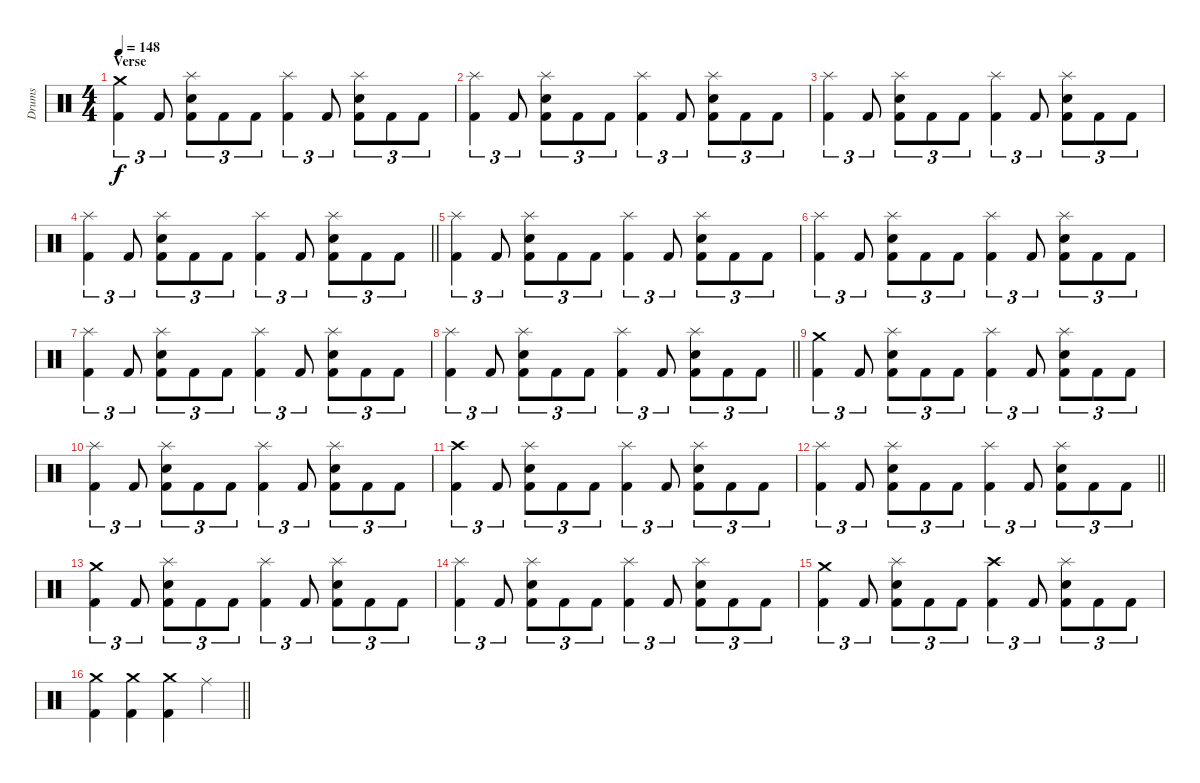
\track ("Drums" "Drums") {instrument percussion}
\staff {score}
\articulation defaults
\ts (4 4)
\section ("" "Verse")
\tempo 148
\clef neutral
\ks c
("Kick (hit) 2" "Crash medium (hit)").4{tu (3 2) dy f} "Kick (hit) 2".8{tu (3 2)} ("Kick (hit) 2" "Snare (hit) 2" "Splash (hit)").8{tu (3 2)} "Kick (hit) 2".8{tu (3 2)} "Kick (hit) 2".8{tu (3 2)} ("Kick (hit) 2" "Splash (hit)").4{tu (3 2)} "Kick (hit) 2".8{tu (3 2)} ("Kick (hit) 2" "Snare (hit) 2" "Splash (hit)").8{tu (3 2)} "Kick (hit) 2".8{tu (3 2)} "Kick (hit) 2".8{tu (3 2)} |
("Kick (hit) 2" "Splash (hit)").4{tu (3 2)} "Kick (hit) 2".8{tu (3 2)} ("Kick (hit) 2" "Snare (hit) 2" "Splash (hit)").8{tu (3 2)} "Kick (hit) 2".8{tu (3 2)} "Kick (hit) 2".8{tu (3 2)} ("Kick (hit) 2" "Splash (hit)").4{tu (3 2)} "Kick (hit) 2".8{tu (3 2)} ("Kick (hit) 2" "Snare (hit) 2" "Splash (hit)").8{tu (3 2)} "Kick (hit) 2".8{tu (3 2)} "Kick (hit) 2".8{tu (3 2)} |
("Kick (hit) 2" "Splash (hit)").4{tu (3 2)} "Kick (hit) 2".8{tu (3 2)} ("Kick (hit) 2" "Snare (hit) 2" "Splash (hit)").8{tu (3 2)} "Kick (hit) 2".8{tu (3 2)} "Kick (hit) 2".8{tu (3 2)} ("Kick (hit) 2" "Splash (hit)").4{tu (3 2)} "Kick (hit) 2".8{tu (3 2)} ("Kick (hit) 2" "Snare (hit) 2" "Splash (hit)").8{tu (3 2)} "Kick (hit) 2".8{tu (3 2)} "Kick (hit) 2".8{tu (3 2)} |
\barLineRight lightlight
("Kick (hit) 2" "Splash (hit)").4{tu (3 2)} "Kick (hit) 2".8{tu (3 2)} ("Kick (hit) 2" "Snare (hit) 2" "Splash (hit)").8{tu (3 2)} "Kick (hit) 2".8{tu (3 2)} "Kick (hit) 2".8{tu (3 2)} ("Kick (hit) 2" "Splash (hit)").4{tu (3 2)} "Kick (hit) 2".8{tu (3 2)} ("Kick (hit) 2" "Snare (hit) 2" "Splash (hit)").8{tu (3 2)} "Kick (hit) 2".8{tu (3 2)} "Kick (hit) 2".8{tu (3 2)} |
\section ("" "")
("Kick (hit) 2" "Splash (hit)").4{tu (3 2)} "Kick (hit) 2".8{tu (3 2)} ("Kick (hit) 2" "Snare (hit) 2" "Splash (hit)").8{tu (3 2)} "Kick (hit) 2".8{tu (3 2)} "Kick (hit) 2".8{tu (3 2)} ("Kick (hit) 2" "Splash (hit)").4{tu (3 2)} "Kick (hit) 2".8{tu (3 2)} ("Kick (hit) 2" "Snare (hit) 2" "Splash (hit)").8{tu (3 2)} "Kick (hit) 2".8{tu (3 2)} "Kick (hit) 2".8{tu (3 2)} |
("Kick (hit) 2" "Splash (hit)").4{tu (3 2)} "Kick (hit) 2".8{tu (3 2)} ("Kick (hit) 2" "Snare (hit) 2" "Splash (hit)").8{tu (3 2)} "Kick (hit) 2".8{tu (3 2)} "Kick (hit) 2".8{tu (3 2)} ("Kick (hit) 2" "Splash (hit)").4{tu (3 2)} "Kick (hit) 2".8{tu (3 2)} ("Kick (hit) 2" "Snare (hit) 2" "Splash (hit)").8{tu (3 2)} "Kick (hit) 2".8{tu (3 2)} "Kick (hit) 2".8{tu (3 2)} |
("Kick (hit) 2" "Splash (hit)").4{tu (3 2)} "Kick (hit) 2".8{tu (3 2)} ("Kick (hit) 2" "Snare (hit) 2" "Splash (hit)").8{tu (3 2)} "Kick (hit) 2".8{tu (3 2)} "Kick (hit) 2".8{tu (3 2)} ("Kick (hit) 2" "Splash (hit)").4{tu (3 2)} "Kick (hit) 2".8{tu (3 2)} ("Kick (hit) 2" "Snare (hit) 2" "Splash (hit)").8{tu (3 2)} "Kick (hit) 2".8{tu (3 2)} "Kick (hit) 2".8{tu (3 2)} |
\barLineRight lightlight
("Kick (hit) 2" "Splash (hit)").4{tu (3 2)} "Kick (hit) 2".8{tu (3 2)} ("Kick (hit) 2" "Snare (hit) 2" "Splash (hit)").8{tu (3 2)} "Kick (hit) 2".8{tu (3 2)} "Kick (hit) 2".8{tu (3 2)} ("Kick (hit) 2" "Splash (hit)").4{tu (3 2)} "Kick (hit) 2".8{tu (3 2)} ("Kick (hit) 2" "Snare (hit) 2" "Splash (hit)").8{tu (3 2)} "Kick (hit) 2".8{tu (3 2)} "Kick (hit) 2".8{tu (3 2)} |
\section ("" "")
("Kick (hit) 2" "Crash medium (hit)").4{tu (3 2)} "Kick (hit) 2".8{tu (3 2)} ("Kick (hit) 2" "Snare (hit) 2" "Splash (hit)").8{tu (3 2)} "Kick (hit) 2".8{tu (3 2)} "Kick (hit) 2".8{tu (3 2)} ("Kick (hit) 2" "Splash (hit)").4{tu (3 2)} "Kick (hit) 2".8{tu (3 2)} ("Kick (hit) 2" "Snare (hit) 2" "Splash (hit)").8{tu (3 2)} "Kick (hit) 2".8{tu (3 2)} "Kick (hit) 2".8{tu (3 2)} |
("Kick (hit) 2" "Splash (hit)").4{tu (3 2)} "Kick (hit) 2".8{tu (3 2)} ("Kick (hit) 2" "Snare (hit) 2" "Splash (hit)").8{tu (3 2)} "Kick (hit) 2".8{tu (3 2)} "Kick (hit) 2".8{tu (3 2)} ("Kick (hit) 2" "Splash (hit)").4{tu (3 2)} "Kick (hit) 2".8{tu (3 2)} ("Kick (hit) 2" "Snare (hit) 2" "Splash (hit)").8{tu (3 2)} "Kick (hit) 2".8{tu (3 2)} "Kick (hit) 2".8{tu (3 2)} |
("Kick (hit) 2" "Crash high (hit)").4{tu (3 2)} "Kick (hit) 2".8{tu (3 2)} ("Kick (hit) 2" "Snare (hit) 2" "Splash (hit)").8{tu (3 2)} "Kick (hit) 2".8{tu (3 2)} "Kick (hit) 2".8{tu (3 2)} ("Kick (hit) 2" "Splash (hit)").4{tu (3 2)} "Kick (hit) 2".8{tu (3 2)} ("Kick (hit) 2" "Snare (hit) 2" "Splash (hit)").8{tu (3 2)} "Kick (hit) 2".8{tu (3 2)} "Kick (hit) 2".8{tu (3 2)} |
\barLineRight lightlight
("Kick (hit) 2" "Splash (hit)").4{tu (3 2)} "Kick (hit) 2".8{tu (3 2)} ("Kick (hit) 2" "Snare (hit) 2" "Splash (hit)").8{tu (3 2)} "Kick (hit) 2".8{tu (3 2)} "Kick (hit) 2".8{tu (3 2)} ("Kick (hit) 2" "Splash (hit)").4{tu (3 2)} "Kick (hit) 2".8{tu (3 2)} ("Kick (hit) 2" "Snare (hit) 2" "Splash (hit)").8{tu (3 2)} "Kick (hit) 2".8{tu (3 2)} "Kick (hit) 2".8{tu (3 2)} |
\section ("" "")
("Kick (hit) 2" "Crash medium (hit)").4{tu (3 2)} "Kick (hit) 2".8{tu (3 2)} ("Kick (hit) 2" "Snare (hit) 2" "Splash (hit)").8{tu (3 2)} "Kick (hit) 2".8{tu (3 2)} "Kick (hit) 2".8{tu (3 2)} ("Kick (hit) 2" "Splash (hit)").4{tu (3 2)} "Kick (hit) 2".8{tu (3 2)} ("Kick (hit) 2" "Snare (hit) 2" "Splash (hit)").8{tu (3 2)} "Kick (hit) 2".8{tu (3 2)} "Kick (hit) 2".8{tu (3 2)} |
("Kick (hit) 2" "Splash (hit)").4{tu (3 2)} "Kick (hit) 2".8{tu (3 2)} ("Kick (hit) 2" "Snare (hit) 2" "Splash (hit)").8{tu (3 2)} "Kick (hit) 2".8{tu (3 2)} "Kick (hit) 2".8{tu (3 2)} ("Kick (hit) 2" "Splash (hit)").4{tu (3 2)} "Kick (hit) 2".8{tu (3 2)} ("Kick (hit) 2" "Snare (hit) 2" "Splash (hit)").8{tu (3 2)} "Kick (hit) 2".8{tu (3 2)} "Kick (hit) 2".8{tu (3 2)} |
("Kick (hit) 2" "Crash medium (hit)").4{tu (3 2)} "Kick (hit) 2".8{tu (3 2)} ("Kick (hit) 2" "Snare (hit) 2" "Splash (hit)").8{tu (3 2)} "Kick (hit) 2".8{tu (3 2)} "Kick (hit) 2".8{tu (3 2)} ("Kick (hit) 2" "Crash high (hit)").4{tu (3 2)} "Kick (hit) 2".8{tu (3 2)} ("Kick (hit) 2" "Snare (hit) 2" "Splash (hit)").8{tu (3 2)} "Kick (hit) 2".8{tu (3 2)} "Kick (hit) 2".8{tu (3 2)} |
\barLineRight lightlight
("Kick (hit) 2" "Crash medium (hit)").4 ("Kick (hit) 2" "Crash medium (hit)").4 ("Kick (hit) 2" "Crash medium (hit)").4 "Ride (middle)".4
